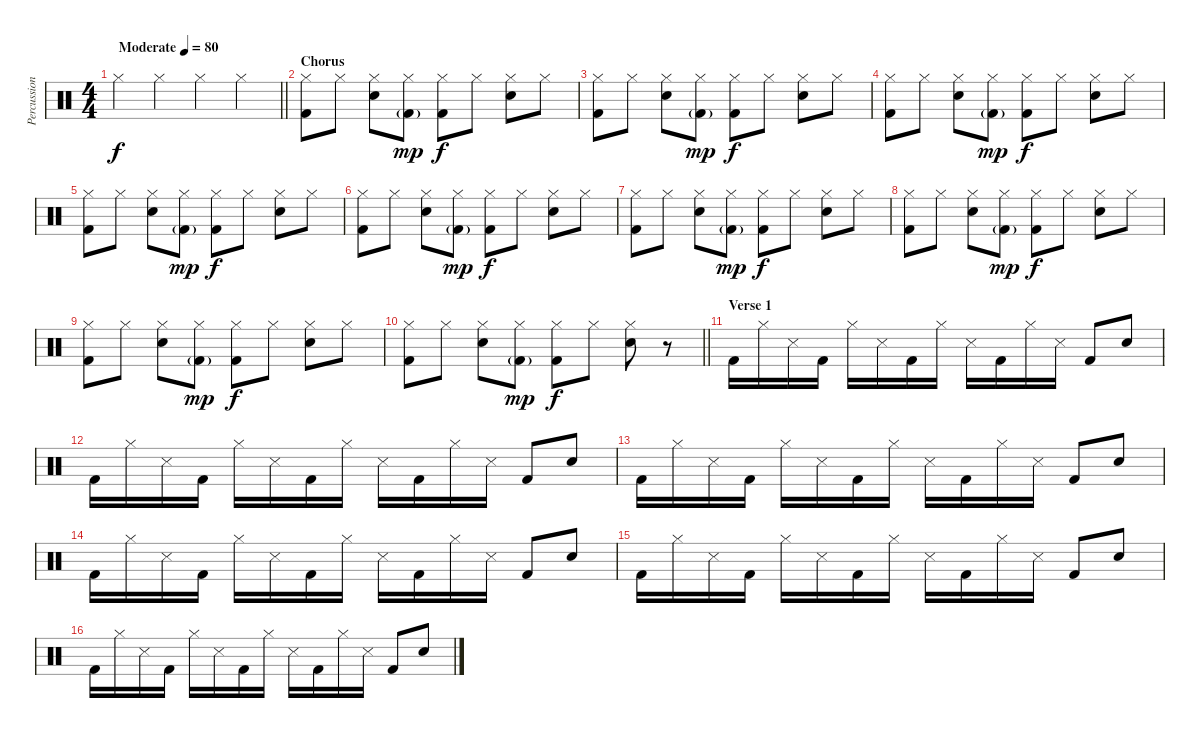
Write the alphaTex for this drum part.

\track ("Percussion" "Percussion") {instrument percussion}
\staff {score}
\articulation defaults
\ts (4 4)
\tempo (80 "Moderate")
\clef neutral
\barLineRight lightlight
\ks c "Hi-Hat (closed)".4{dy f} "Hi-Hat (closed)".4 "Hi-Hat (closed)".4 "Hi-Hat (closed)".4
|
\section ("" "Chorus")
("Hi-Hat (closed)" "Kick (hit) 2").8 "Hi-Hat (closed)".8 ("Hi-Hat (closed)" "Snare (hit) 2").8 ("Hi-Hat (closed)" "Kick (hit) 2"{g}).8{dy mp} ("Hi-Hat (closed)" "Kick (hit) 2").8{dy f} "Hi-Hat (closed)".8 ("Hi-Hat (closed)" "Snare (hit) 2").8 "Hi-Hat (closed)".8 |
("Hi-Hat (closed)" "Kick (hit) 2").8 "Hi-Hat (closed)".8 ("Hi-Hat (closed)" "Snare (hit) 2").8 ("Hi-Hat (closed)" "Kick (hit) 2"{g}).8{dy mp} ("Hi-Hat (closed)" "Kick (hit) 2").8{dy f} "Hi-Hat (closed)".8 ("Hi-Hat (closed)" "Snare (hit) 2").8 "Hi-Hat (closed)".8 |
("Hi-Hat (closed)" "Kick (hit) 2").8 "Hi-Hat (closed)".8 ("Hi-Hat (closed)" "Snare (hit) 2").8 ("Hi-Hat (closed)" "Kick (hit) 2"{g}).8{dy mp} ("Hi-Hat (closed)" "Kick (hit) 2").8{dy f} "Hi-Hat (closed)".8 ("Hi-Hat (closed)" "Snare (hit) 2").8 "Hi-Hat (closed)".8 |
("Hi-Hat (closed)" "Kick (hit) 2").8 "Hi-Hat (closed)".8 ("Hi-Hat (closed)" "Snare (hit) 2").8 ("Hi-Hat (closed)" "Kick (hit) 2"{g}).8{dy mp} ("Hi-Hat (closed)" "Kick (hit) 2").8{dy f} "Hi-Hat (closed)".8 ("Hi-Hat (closed)" "Snare (hit) 2").8 "Hi-Hat (closed)".8 |
("Hi-Hat (closed)" "Kick (hit) 2").8 "Hi-Hat (closed)".8 ("Hi-Hat (closed)" "Snare (hit) 2").8 ("Hi-Hat (closed)" "Kick (hit) 2"{g}).8{dy mp} ("Hi-Hat (closed)" "Kick (hit) 2").8{dy f} "Hi-Hat (closed)".8 ("Hi-Hat (closed)" "Snare (hit) 2").8 "Hi-Hat (closed)".8 |
("Hi-Hat (closed)" "Kick (hit) 2").8 "Hi-Hat (closed)".8 ("Hi-Hat (closed)" "Snare (hit) 2").8 ("Hi-Hat (closed)" "Kick (hit) 2"{g}).8{dy mp} ("Hi-Hat (closed)" "Kick (hit) 2").8{dy f} "Hi-Hat (closed)".8 ("Hi-Hat (closed)" "Snare (hit) 2").8 "Hi-Hat (closed)".8 |
("Hi-Hat (closed)" "Kick (hit) 2").8 "Hi-Hat (closed)".8 ("Hi-Hat (closed)" "Snare (hit) 2").8 ("Hi-Hat (closed)" "Kick (hit) 2"{g}).8{dy mp} ("Hi-Hat (closed)" "Kick (hit) 2").8{dy f} "Hi-Hat (closed)".8 ("Hi-Hat (closed)" "Snare (hit) 2").8 "Hi-Hat (closed)".8 |
("Hi-Hat (closed)" "Kick (hit) 2").8 "Hi-Hat (closed)".8 ("Hi-Hat (closed)" "Snare (hit) 2").8 ("Hi-Hat (closed)" "Kick (hit) 2"{g}).8{dy mp} ("Hi-Hat (closed)" "Kick (hit) 2").8{dy f} "Hi-Hat (closed)".8 ("Hi-Hat (closed)" "Snare (hit) 2").8 "Hi-Hat (closed)".8 |
\barLineRight lightlight
("Hi-Hat (closed)" "Kick (hit) 2").8 "Hi-Hat (closed)".8 ("Hi-Hat (closed)" "Snare (hit) 2").8 ("Hi-Hat (closed)" "Kick (hit) 2"{g}).8{dy mp} ("Hi-Hat (closed)" "Kick (hit) 2").8{dy f} "Hi-Hat (closed)".8 ("Hi-Hat (closed)" "Snare (hit) 2").8 r.8 |
\section ("" "Verse 1")
"Kick (hit) 2".16 "Hi-Hat (closed)".16 "Snare (side stick) 3".16 "Kick (hit) 2".16 "Hi-Hat (closed)".16 "Snare (side stick) 3".16 "Kick (hit) 2".16 "Hi-Hat (closed)".16 "Snare (side stick) 3".16 "Kick (hit) 2".16 "Hi-Hat (closed)".16 "Snare (side stick) 3".16 "Kick (hit) 2".8 "Snare (hit) 2".8 |
"Kick (hit) 2".16 "Hi-Hat (closed)".16 "Snare (side stick) 3".16 "Kick (hit) 2".16 "Hi-Hat (closed)".16 "Snare (side stick) 3".16 "Kick (hit) 2".16 "Hi-Hat (closed)".16 "Snare (side stick) 3".16 "Kick (hit) 2".16 "Hi-Hat (closed)".16 "Snare (side stick) 3".16 "Kick (hit) 2".8 "Snare (hit) 2".8 |
"Kick (hit) 2".16 "Hi-Hat (closed)".16 "Snare (side stick) 3".16 "Kick (hit) 2".16 "Hi-Hat (closed)".16 "Snare (side stick) 3".16 "Kick (hit) 2".16 "Hi-Hat (closed)".16 "Snare (side stick) 3".16 "Kick (hit) 2".16 "Hi-Hat (closed)".16 "Snare (side stick) 3".16 "Kick (hit) 2".8 "Snare (hit) 2".8 |
"Kick (hit) 2".16 "Hi-Hat (closed)".16 "Snare (side stick) 3".16 "Kick (hit) 2".16 "Hi-Hat (closed)".16 "Snare (side stick) 3".16 "Kick (hit) 2".16 "Hi-Hat (closed)".16 "Snare (side stick) 3".16 "Kick (hit) 2".16 "Hi-Hat (closed)".16 "Snare (side stick) 3".16 "Kick (hit) 2".8 "Snare (hit) 2".8 |
"Kick (hit) 2".16 "Hi-Hat (closed)".16 "Snare (side stick) 3".16 "Kick (hit) 2".16 "Hi-Hat (closed)".16 "Snare (side stick) 3".16 "Kick (hit) 2".16 "Hi-Hat (closed)".16 "Snare (side stick) 3".16 "Kick (hit) 2".16 "Hi-Hat (closed)".16 "Snare (side stick) 3".16 "Kick (hit) 2".8 "Snare (hit) 2".8 |
"Kick (hit) 2".16 "Hi-Hat (closed)".16 "Snare (side stick) 3".16 "Kick (hit) 2".16 "Hi-Hat (closed)".16 "Snare (side stick) 3".16 "Kick (hit) 2".16 "Hi-Hat (closed)".16 "Snare (side stick) 3".16 "Kick (hit) 2".16 "Hi-Hat (closed)".16 "Snare (side stick) 3".16 "Kick (hit) 2".8 "Snare (hit) 2".8
